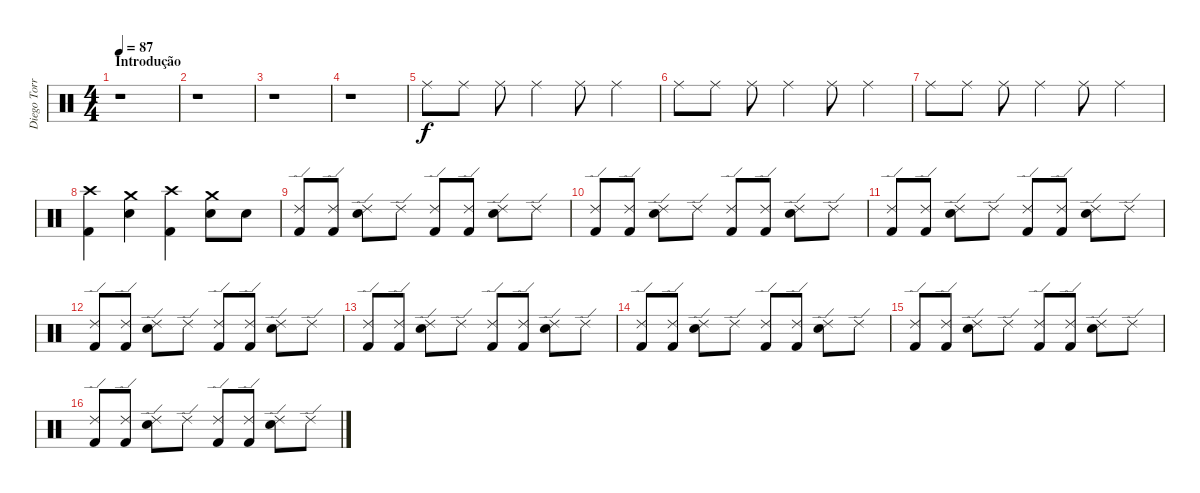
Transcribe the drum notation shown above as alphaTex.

\track ("Diego Torres [Bateria]" "Diego Torr") {instrument percussion}
\staff {score}
\articulation defaults
\ts (4 4)
\section ("" "Introdução")
\tempo 87
\clef neutral
\ks c
r.1{dy f} |
r.1 |
r.1 |
r.1 |
"Ride (middle)".8 "Ride (middle)".8 "Ride (middle)".8 "Ride (middle)".4 "Ride (middle)".8 "Ride (middle)".4 |
"Ride (middle)".8 "Ride (middle)".8 "Ride (middle)".8 "Ride (middle)".4 "Ride (middle)".8 "Ride (middle)".4 |
"Ride (middle)".8 "Ride (middle)".8 "Ride (middle)".8 "Ride (middle)".4 "Ride (middle)".8 "Ride (middle)".4 |
("Crash high (hit)" "Kick (hit) 2").4 ("Crash medium (hit)" "Electric Snare (hit)").4 ("Crash high (hit)" "Kick (hit) 2").4 ("Crash medium (hit)" "Electric Snare (hit)").8 "Electric Snare (hit)".8 |
("Ride (edge) 2" "Kick (hit) 2").8 ("Ride (edge) 2" "Kick (hit) 2").8 ("Ride (edge) 2" "Electric Snare (hit)").8 "Ride (edge) 2".8 ("Ride (edge) 2" "Kick (hit) 2").8 ("Ride (edge) 2" "Kick (hit) 2").8 ("Ride (edge) 2" "Electric Snare (hit)").8 "Ride (edge) 2".8 |
("Ride (edge) 2" "Kick (hit) 2").8 ("Ride (edge) 2" "Kick (hit) 2").8 ("Ride (edge) 2" "Electric Snare (hit)").8 "Ride (edge) 2".8 ("Ride (edge) 2" "Kick (hit) 2").8 ("Ride (edge) 2" "Kick (hit) 2").8 ("Ride (edge) 2" "Electric Snare (hit)").8 "Ride (edge) 2".8 |
("Ride (edge) 2" "Kick (hit) 2").8 ("Ride (edge) 2" "Kick (hit) 2").8 ("Ride (edge) 2" "Electric Snare (hit)").8 "Ride (edge) 2".8 ("Ride (edge) 2" "Kick (hit) 2").8 ("Ride (edge) 2" "Kick (hit) 2").8 ("Ride (edge) 2" "Electric Snare (hit)").8 "Ride (edge) 2".8 |
("Ride (edge) 2" "Kick (hit) 2").8 ("Ride (edge) 2" "Kick (hit) 2").8 ("Ride (edge) 2" "Electric Snare (hit)").8 "Ride (edge) 2".8 ("Ride (edge) 2" "Kick (hit) 2").8 ("Ride (edge) 2" "Kick (hit) 2").8 ("Ride (edge) 2" "Electric Snare (hit)").8 "Ride (edge) 2".8 |
("Ride (edge) 2" "Kick (hit) 2").8 ("Ride (edge) 2" "Kick (hit) 2").8 ("Ride (edge) 2" "Electric Snare (hit)").8 "Ride (edge) 2".8 ("Ride (edge) 2" "Kick (hit) 2").8 ("Ride (edge) 2" "Kick (hit) 2").8 ("Ride (edge) 2" "Electric Snare (hit)").8 "Ride (edge) 2".8 |
("Ride (edge) 2" "Kick (hit) 2").8 ("Ride (edge) 2" "Kick (hit) 2").8 ("Ride (edge) 2" "Electric Snare (hit)").8 "Ride (edge) 2".8 ("Ride (edge) 2" "Kick (hit) 2").8 ("Ride (edge) 2" "Kick (hit) 2").8 ("Ride (edge) 2" "Electric Snare (hit)").8 "Ride (edge) 2".8 |
("Ride (edge) 2" "Kick (hit) 2").8 ("Ride (edge) 2" "Kick (hit) 2").8 ("Ride (edge) 2" "Electric Snare (hit)").8 "Ride (edge) 2".8 ("Ride (edge) 2" "Kick (hit) 2").8 ("Ride (edge) 2" "Kick (hit) 2").8 ("Ride (edge) 2" "Electric Snare (hit)").8 "Ride (edge) 2".8 |
("Ride (edge) 2" "Kick (hit) 2").8 ("Ride (edge) 2" "Kick (hit) 2").8 ("Ride (edge) 2" "Electric Snare (hit)").8 "Ride (edge) 2".8 ("Ride (edge) 2" "Kick (hit) 2").8 ("Ride (edge) 2" "Kick (hit) 2").8 ("Ride (edge) 2" "Electric Snare (hit)").8 "Ride (edge) 2".8
